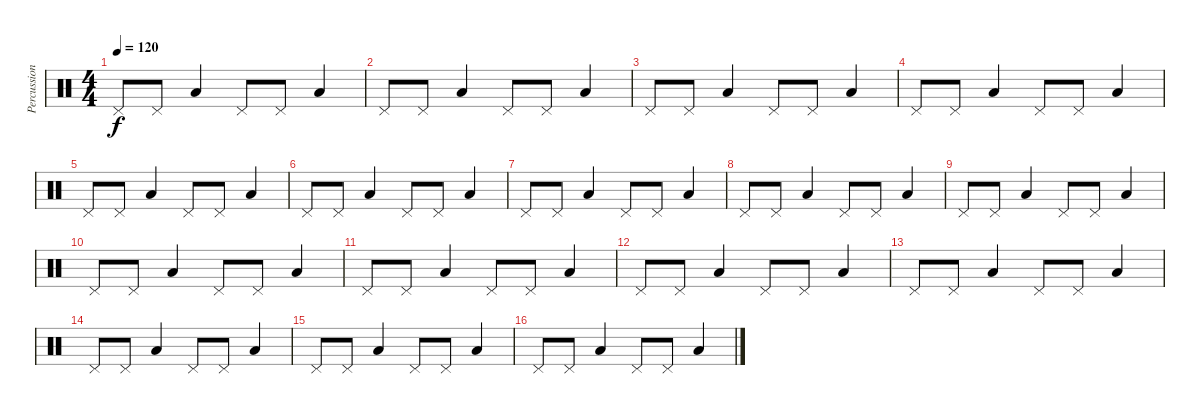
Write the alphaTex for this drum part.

\track ("Percussions" "Percussion") {instrument percussion}
\staff {score}
\articulation defaults
\ts (4 4)
\tempo 120
\clef neutral
\ks c "Pedal Hi-Hat (hit)".8{dy f} "Pedal Hi-Hat (hit)".8 "Low Tom (hit)".4 "Pedal Hi-Hat (hit)".8 "Pedal Hi-Hat (hit)".8 "Low Tom (hit)".4
|
"Pedal Hi-Hat (hit)".8 "Pedal Hi-Hat (hit)".8 "Low Tom (hit)".4 "Pedal Hi-Hat (hit)".8 "Pedal Hi-Hat (hit)".8 "Low Tom (hit)".4 |
"Pedal Hi-Hat (hit)".8 "Pedal Hi-Hat (hit)".8 "Low Tom (hit)".4 "Pedal Hi-Hat (hit)".8 "Pedal Hi-Hat (hit)".8 "Low Tom (hit)".4 |
"Pedal Hi-Hat (hit)".8 "Pedal Hi-Hat (hit)".8 "Low Tom (hit)".4 "Pedal Hi-Hat (hit)".8 "Pedal Hi-Hat (hit)".8 "Low Tom (hit)".4 |
"Pedal Hi-Hat (hit)".8 "Pedal Hi-Hat (hit)".8 "Low Tom (hit)".4 "Pedal Hi-Hat (hit)".8 "Pedal Hi-Hat (hit)".8 "Low Tom (hit)".4 |
"Pedal Hi-Hat (hit)".8 "Pedal Hi-Hat (hit)".8 "Low Tom (hit)".4 "Pedal Hi-Hat (hit)".8 "Pedal Hi-Hat (hit)".8 "Low Tom (hit)".4 |
"Pedal Hi-Hat (hit)".8 "Pedal Hi-Hat (hit)".8 "Low Tom (hit)".4 "Pedal Hi-Hat (hit)".8 "Pedal Hi-Hat (hit)".8 "Low Tom (hit)".4 |
"Pedal Hi-Hat (hit)".8 "Pedal Hi-Hat (hit)".8 "Low Tom (hit)".4 "Pedal Hi-Hat (hit)".8 "Pedal Hi-Hat (hit)".8 "Low Tom (hit)".4 |
"Pedal Hi-Hat (hit)".8 "Pedal Hi-Hat (hit)".8 "Low Tom (hit)".4 "Pedal Hi-Hat (hit)".8 "Pedal Hi-Hat (hit)".8 "Low Tom (hit)".4 |
"Pedal Hi-Hat (hit)".8 "Pedal Hi-Hat (hit)".8 "Low Tom (hit)".4 "Pedal Hi-Hat (hit)".8 "Pedal Hi-Hat (hit)".8 "Low Tom (hit)".4 |
"Pedal Hi-Hat (hit)".8 "Pedal Hi-Hat (hit)".8 "Low Tom (hit)".4 "Pedal Hi-Hat (hit)".8 "Pedal Hi-Hat (hit)".8 "Low Tom (hit)".4 |
"Pedal Hi-Hat (hit)".8 "Pedal Hi-Hat (hit)".8 "Low Tom (hit)".4 "Pedal Hi-Hat (hit)".8 "Pedal Hi-Hat (hit)".8 "Low Tom (hit)".4 |
"Pedal Hi-Hat (hit)".8 "Pedal Hi-Hat (hit)".8 "Low Tom (hit)".4 "Pedal Hi-Hat (hit)".8 "Pedal Hi-Hat (hit)".8 "Low Tom (hit)".4 |
"Pedal Hi-Hat (hit)".8 "Pedal Hi-Hat (hit)".8 "Low Tom (hit)".4 "Pedal Hi-Hat (hit)".8 "Pedal Hi-Hat (hit)".8 "Low Tom (hit)".4 |
"Pedal Hi-Hat (hit)".8 "Pedal Hi-Hat (hit)".8 "Low Tom (hit)".4 "Pedal Hi-Hat (hit)".8 "Pedal Hi-Hat (hit)".8 "Low Tom (hit)".4 |
"Pedal Hi-Hat (hit)".8 "Pedal Hi-Hat (hit)".8 "Low Tom (hit)".4 "Pedal Hi-Hat (hit)".8 "Pedal Hi-Hat (hit)".8 "Low Tom (hit)".4
